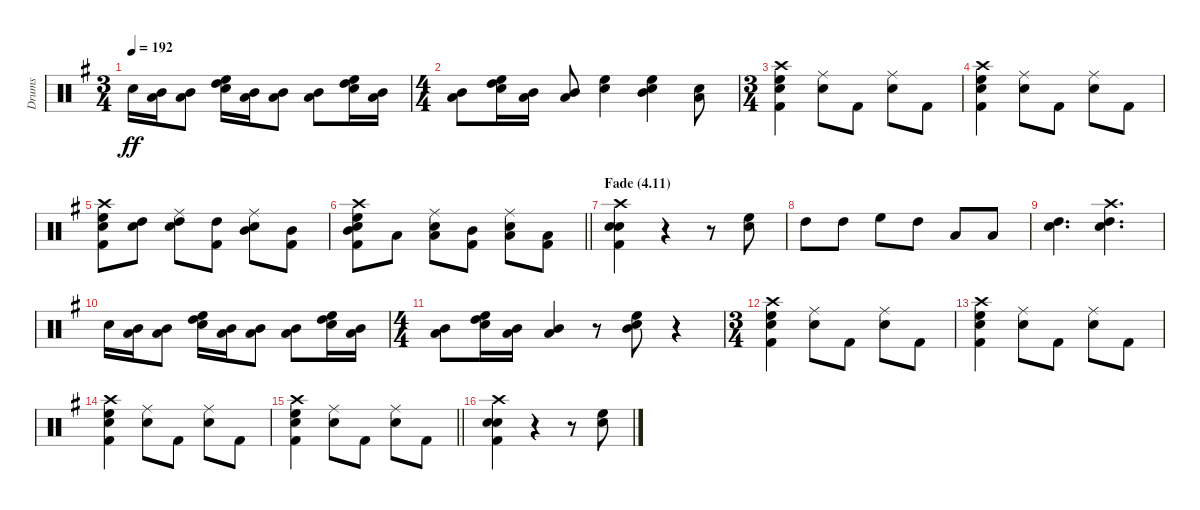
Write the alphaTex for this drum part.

\track ("Drums" "Drums") {instrument percussion}
\staff {score}
\articulation defaults
\ts (3 4)
\tempo 192
\clef neutral
\ks g "Electric Snare (hit)".16{dy ff}
("Mid Tom (hit)" "Low Tom (hit)").16 ("Mid Tom (hit)" "Low Tom (hit)").8 ("High Floor Tom (hit)" "High Tom (hit)" "Electric Snare (hit)").16 ("Mid Tom (hit)" "Low Tom (hit)").16 ("Mid Tom (hit)" "Low Tom (hit)").8 ("Mid Tom (hit)" "Low Tom (hit)").8 ("High Floor Tom (hit)" "High Tom (hit)" "Electric Snare (hit)").16 ("Mid Tom (hit)" "Low Tom (hit)").16 |
\ts (4 4)
("Mid Tom (hit)" "Low Tom (hit)").8 ("High Floor Tom (hit)" "High Tom (hit)" "Electric Snare (hit)").16 ("Mid Tom (hit)" "Low Tom (hit)").16 ("Mid Tom (hit)" "Low Tom (hit)").8 ("Electric Snare (hit)" "High Floor Tom (hit)").4 ("Mid Tom (hit)" "High Floor Tom (hit)" "Electric Snare (hit)").4 ("Electric Snare (hit)" "Low Tom (hit)").8 |
\ts (3 4)
("Kick (hit) 2" "Crash high (hit)" "High Floor Tom (hit)" "Electric Snare (hit)").4 ("Ride (middle)" "Electric Snare (hit)").8 "Kick (hit) 2".8 ("Ride (middle)" "Electric Snare (hit)").8 "Kick (hit) 2".8 |
("Kick (hit) 2" "Crash high (hit)" "High Floor Tom (hit)" "Electric Snare (hit)").4 ("Ride (middle)" "Electric Snare (hit)").8 "Kick (hit) 2".8 ("Ride (middle)" "Electric Snare (hit)").8 "Kick (hit) 2".8 |
("Kick (hit) 2" "Crash high (hit)" "High Floor Tom (hit)" "Electric Snare (hit)").8 ("Electric Snare (hit)" "High Tom (hit)").8 ("High Tom (hit)" "Ride (middle)" "Electric Snare (hit)").8 ("High Tom (hit)" "Kick (hit) 2").8 ("Mid Tom (hit)" "Ride (middle)" "Electric Snare (hit)").8 ("Mid Tom (hit)" "Kick (hit) 2").8 |
\barLineRight lightlight
("Mid Tom (hit)" "Kick (hit) 2" "Crash high (hit)" "High Floor Tom (hit)" "Electric Snare (hit)").8 "Low Tom (hit)".8 ("Low Tom (hit)" "Ride (middle)" "Electric Snare (hit)").8 ("Mid Tom (hit)" "Kick (hit) 2").8 ("Low Tom (hit)" "Ride (middle)" "Electric Snare (hit)").8 ("Low Tom (hit)" "Kick (hit) 2").8 |
\section ("" "Fade (4.11)")
("Kick (hit) 2" "Snare (hit) 2" "Electric Snare (hit)" "Crash high (hit)").4 r.4 r.8 ("High Floor Tom (hit)" "Electric Snare (hit)").8 |
"High Tom (hit)".8 "High Tom (hit)".8 "High Floor Tom (hit)".8 "High Tom (hit)".8 "Low Tom (hit)".8 "Low Tom (hit)".8 |
("Electric Snare (hit)" "High Tom (hit)").4{d} ("Electric Snare (hit)" "High Tom (hit)" "Crash high (hit)").4{d} |
"Electric Snare (hit)".16 ("Mid Tom (hit)" "Low Tom (hit)").16 ("Mid Tom (hit)" "Low Tom (hit)").8 ("High Floor Tom (hit)" "High Tom (hit)" "Electric Snare (hit)").16 ("Mid Tom (hit)" "Low Tom (hit)").16 ("Mid Tom (hit)" "Low Tom (hit)").8 ("Mid Tom (hit)" "Low Tom (hit)").8 ("High Floor Tom (hit)" "High Tom (hit)" "Electric Snare (hit)").16 ("Mid Tom (hit)" "Low Tom (hit)").16 |
\ts (4 4)
("Mid Tom (hit)" "Low Tom (hit)").8 ("High Floor Tom (hit)" "High Tom (hit)" "Electric Snare (hit)").16 ("Mid Tom (hit)" "Low Tom (hit)").16 ("Mid Tom (hit)" "Low Tom (hit)").4 r.8 ("Mid Tom (hit)" "High Floor Tom (hit)" "Electric Snare (hit)").8 r.4 |
\ts (3 4)
("Kick (hit) 2" "Crash high (hit)" "High Floor Tom (hit)" "Electric Snare (hit)").4 ("Ride (middle)" "Electric Snare (hit)").8 "Kick (hit) 2".8 ("Ride (middle)" "Electric Snare (hit)").8 "Kick (hit) 2".8 |
("Kick (hit) 2" "Crash high (hit)" "High Floor Tom (hit)" "Electric Snare (hit)").4 ("Ride (middle)" "Electric Snare (hit)").8 "Kick (hit) 2".8 ("Ride (middle)" "Electric Snare (hit)").8 "Kick (hit) 2".8 |
("Kick (hit) 2" "Crash high (hit)" "High Floor Tom (hit)" "Electric Snare (hit)").4 ("Ride (middle)" "Electric Snare (hit)").8 "Kick (hit) 2".8 ("Ride (middle)" "Electric Snare (hit)").8 "Kick (hit) 2".8 |
\barLineRight lightlight
("Kick (hit) 2" "Crash high (hit)" "High Floor Tom (hit)" "Electric Snare (hit)").4 ("Ride (middle)" "Electric Snare (hit)").8 "Kick (hit) 2".8 ("Ride (middle)" "Electric Snare (hit)").8 "Kick (hit) 2".8 |
("Kick (hit) 2" "Snare (hit) 2" "Electric Snare (hit)" "Crash high (hit)").4 r.4 r.8 ("High Floor Tom (hit)" "Electric Snare (hit)").8
